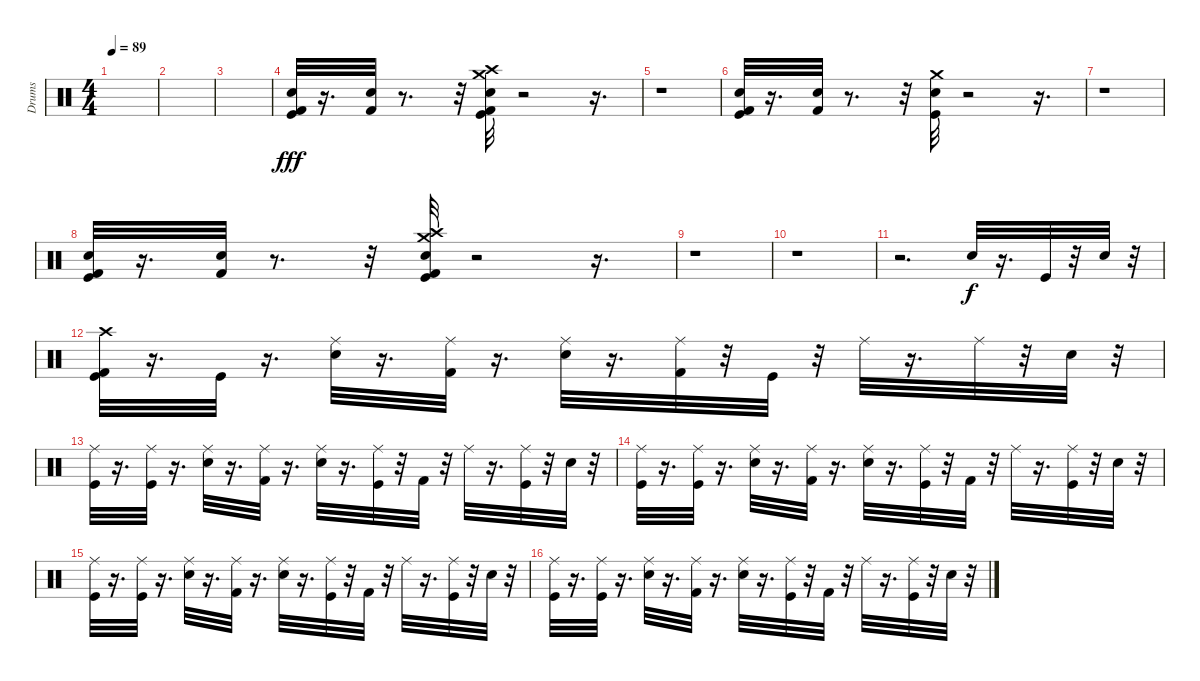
\track ("Drums" "Drums") {instrument percussion}
\staff {score}
\articulation defaults
\ts (4 4)
\tempo 89
\clef neutral
\ks c
|
|
|
("Electric Snare (hit)" "Kick (hit)" "Kick (hit) 2").32{dy fff} r.16{d} ("Kick (hit) 2" "Electric Snare (hit)").32 r.8{d} r.32 ("Electric Snare (hit)" "Crash high (hit)" "Kick (hit) 2" "Kick (hit)" "Crash medium (hit)").32 r.2 r.16{d} |
r.1 |
("Electric Snare (hit)" "Kick (hit)" "Kick (hit) 2").32 r.16{d} ("Kick (hit) 2" "Electric Snare (hit)").32 r.8{d} r.32 ("Electric Snare (hit)" "Kick (hit)" "Crash medium (hit)").32 r.2 r.16{d} |
r.1 |
("Electric Snare (hit)" "Kick (hit)" "Kick (hit) 2").32 r.16{d} ("Kick (hit) 2" "Electric Snare (hit)").32 r.8{d} r.32 ("Snare (hit) 2" "Crash high (hit)" "Kick (hit) 2" "Kick (hit)" "Crash medium (hit)").32 r.2 r.16{d} |
r.1 |
r.1 |
r.2{d} "Electric Snare (hit)".32{dy f} r.16{d} "Kick (hit)".32 r.32 "Electric Snare (hit)".32 r.32 |
("Kick (hit)" "Kick (hit) 2" "Crash high (hit)").32 r.16{d} "Kick (hit)".32 r.16{d} ("Ride (middle)" "Electric Snare (hit)").32 r.16{d} ("Ride (middle)" "Kick (hit) 2").32 r.16{d} ("Ride (middle)" "Electric Snare (hit)").32 r.16{d} ("Ride (middle)" "Kick (hit) 2").32 r.32 "Kick (hit)".32 r.32 "Ride (middle)".32 r.16{d} "Ride (middle)".32 r.32 "Electric Snare (hit)".32 r.32 |
("Kick (hit)" "Ride (middle)").32 r.16{d} ("Kick (hit)" "Ride (middle)").32 r.16{d} ("Electric Snare (hit)" "Ride (middle)").32 r.16{d} ("Kick (hit) 2" "Ride (middle)").32 r.16{d} ("Electric Snare (hit)" "Ride (middle)").32 r.16{d} ("Kick (hit)" "Ride (middle)").32 r.32 "Kick (hit) 2".32 r.32 "Ride (middle)".32 r.16{d} ("Kick (hit)" "Ride (middle)").32 r.32 "Electric Snare (hit)".32 r.32 |
("Kick (hit)" "Ride (middle)").32 r.16{d} ("Kick (hit)" "Ride (middle)").32 r.16{d} ("Electric Snare (hit)" "Ride (middle)").32 r.16{d} ("Kick (hit) 2" "Ride (middle)").32 r.16{d} ("Electric Snare (hit)" "Ride (middle)").32 r.16{d} ("Kick (hit)" "Ride (middle)").32 r.32 "Kick (hit) 2".32 r.32 "Ride (middle)".32 r.16{d} ("Kick (hit)" "Ride (middle)").32 r.32 "Electric Snare (hit)".32 r.32 |
("Kick (hit)" "Ride (middle)").32 r.16{d} ("Kick (hit)" "Ride (middle)").32 r.16{d} ("Electric Snare (hit)" "Ride (middle)").32 r.16{d} ("Kick (hit) 2" "Ride (middle)").32 r.16{d} ("Electric Snare (hit)" "Ride (middle)").32 r.16{d} ("Kick (hit)" "Ride (middle)").32 r.32 "Kick (hit) 2".32 r.32 "Ride (middle)".32 r.16{d} ("Kick (hit)" "Ride (middle)").32 r.32 "Electric Snare (hit)".32 r.32 |
("Kick (hit)" "Ride (middle)").32 r.16{d} ("Kick (hit)" "Ride (middle)").32 r.16{d} ("Electric Snare (hit)" "Ride (middle)").32 r.16{d} ("Kick (hit) 2" "Ride (middle)").32 r.16{d} ("Electric Snare (hit)" "Ride (middle)").32 r.16{d} ("Kick (hit)" "Ride (middle)").32 r.32 "Kick (hit) 2".32 r.32 "Ride (middle)".32 r.16{d} ("Kick (hit)" "Ride (middle)").32 r.32 "Electric Snare (hit)".32 r.32
